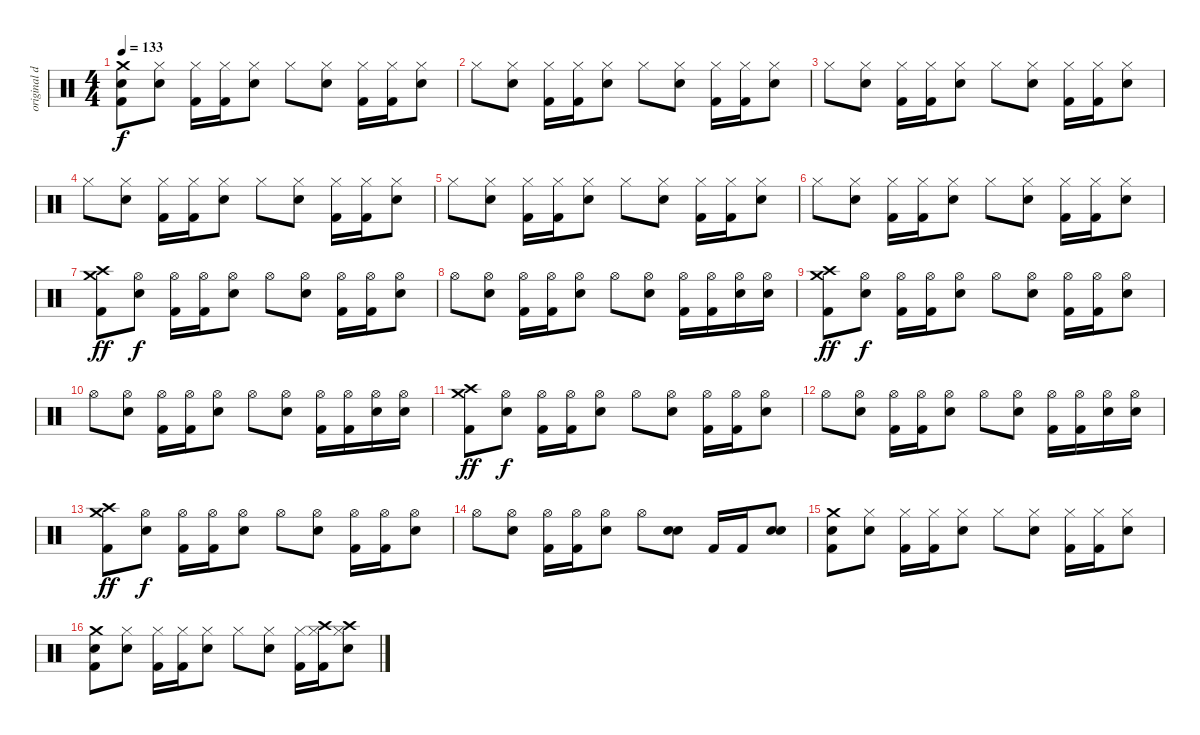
\track ("original drums" "original d") {instrument percussion}
\staff {score}
\articulation defaults
\ts (4 4)
\tempo 133
\clef neutral
\ks c
("Crash medium (hit)" "Electric Snare (hit)" "Kick (hit) 2").8{dy f} ("Hi-Hat (closed)" "Electric Snare (hit)").8 ("Hi-Hat (closed)" "Kick (hit) 2").16 ("Hi-Hat (closed)" "Kick (hit) 2").16 ("Hi-Hat (closed)" "Electric Snare (hit)").8 "Hi-Hat (closed)".8 ("Hi-Hat (closed)" "Electric Snare (hit)").8 ("Hi-Hat (closed)" "Kick (hit) 2").16 ("Hi-Hat (closed)" "Kick (hit) 2").16 ("Hi-Hat (closed)" "Electric Snare (hit)").8 |
"Hi-Hat (closed)".8 ("Hi-Hat (closed)" "Electric Snare (hit)").8 ("Hi-Hat (closed)" "Kick (hit) 2").16 ("Hi-Hat (closed)" "Kick (hit) 2").16 ("Hi-Hat (closed)" "Electric Snare (hit)").8 "Hi-Hat (closed)".8 ("Hi-Hat (closed)" "Electric Snare (hit)").8 ("Hi-Hat (closed)" "Kick (hit) 2").16 ("Hi-Hat (closed)" "Kick (hit) 2").16 ("Hi-Hat (closed)" "Electric Snare (hit)").8 |
"Hi-Hat (closed)".8 ("Hi-Hat (closed)" "Electric Snare (hit)").8 ("Hi-Hat (closed)" "Kick (hit) 2").16 ("Hi-Hat (closed)" "Kick (hit) 2").16 ("Hi-Hat (closed)" "Electric Snare (hit)").8 "Hi-Hat (closed)".8 ("Hi-Hat (closed)" "Electric Snare (hit)").8 ("Hi-Hat (closed)" "Kick (hit) 2").16 ("Hi-Hat (closed)" "Kick (hit) 2").16 ("Hi-Hat (closed)" "Electric Snare (hit)").8 |
"Hi-Hat (closed)".8 ("Hi-Hat (closed)" "Electric Snare (hit)").8 ("Hi-Hat (closed)" "Kick (hit) 2").16 ("Hi-Hat (closed)" "Kick (hit) 2").16 ("Hi-Hat (closed)" "Electric Snare (hit)").8 "Hi-Hat (closed)".8 ("Hi-Hat (closed)" "Electric Snare (hit)").8 ("Hi-Hat (closed)" "Kick (hit) 2").16 ("Hi-Hat (closed)" "Kick (hit) 2").16 ("Hi-Hat (closed)" "Electric Snare (hit)").8 |
"Hi-Hat (closed)".8 ("Hi-Hat (closed)" "Electric Snare (hit)").8 ("Hi-Hat (closed)" "Kick (hit) 2").16 ("Hi-Hat (closed)" "Kick (hit) 2").16 ("Hi-Hat (closed)" "Electric Snare (hit)").8 "Hi-Hat (closed)".8 ("Hi-Hat (closed)" "Electric Snare (hit)").8 ("Hi-Hat (closed)" "Kick (hit) 2").16 ("Hi-Hat (closed)" "Kick (hit) 2").16 ("Hi-Hat (closed)" "Electric Snare (hit)").8 |
"Hi-Hat (closed)".8 ("Hi-Hat (closed)" "Electric Snare (hit)").8 ("Hi-Hat (closed)" "Kick (hit) 2").16 ("Hi-Hat (closed)" "Kick (hit) 2").16 ("Hi-Hat (closed)" "Electric Snare (hit)").8 "Hi-Hat (closed)".8 ("Hi-Hat (closed)" "Electric Snare (hit)").8 ("Hi-Hat (closed)" "Kick (hit) 2").16 ("Hi-Hat (closed)" "Kick (hit) 2").16 ("Hi-Hat (closed)" "Electric Snare (hit)").8 |
("Crash high (hit)" "Crash medium (hit)" "Kick (hit) 2").8{dy ff} ("Hi-Hat (open)" "Electric Snare (hit)").8{dy f} ("Hi-Hat (open)" "Kick (hit) 2").16 ("Hi-Hat (open)" "Kick (hit) 2").16 ("Hi-Hat (open)" "Electric Snare (hit)").8 "Hi-Hat (open)".8 ("Hi-Hat (open)" "Electric Snare (hit)").8 ("Hi-Hat (open)" "Kick (hit) 2").16 ("Hi-Hat (open)" "Kick (hit) 2").16 ("Hi-Hat (open)" "Electric Snare (hit)").8 |
"Hi-Hat (open)".8 ("Hi-Hat (open)" "Electric Snare (hit)").8 ("Hi-Hat (open)" "Kick (hit) 2").16 ("Hi-Hat (open)" "Kick (hit) 2").16 ("Hi-Hat (open)" "Electric Snare (hit)").8 "Hi-Hat (open)".8 ("Hi-Hat (open)" "Electric Snare (hit)").8 ("Hi-Hat (open)" "Kick (hit) 2").16 ("Hi-Hat (open)" "Kick (hit) 2").16 ("Hi-Hat (open)" "Electric Snare (hit)").16 ("Hi-Hat (open)" "Electric Snare (hit)").16 |
("Crash high (hit)" "Crash medium (hit)" "Kick (hit) 2").8{dy ff} ("Hi-Hat (open)" "Electric Snare (hit)").8{dy f} ("Hi-Hat (open)" "Kick (hit) 2").16 ("Hi-Hat (open)" "Kick (hit) 2").16 ("Hi-Hat (open)" "Electric Snare (hit)").8 "Hi-Hat (open)".8 ("Hi-Hat (open)" "Electric Snare (hit)").8 ("Hi-Hat (open)" "Kick (hit) 2").16 ("Hi-Hat (open)" "Kick (hit) 2").16 ("Hi-Hat (open)" "Electric Snare (hit)").8 |
"Hi-Hat (open)".8 ("Hi-Hat (open)" "Electric Snare (hit)").8 ("Hi-Hat (open)" "Kick (hit) 2").16 ("Hi-Hat (open)" "Kick (hit) 2").16 ("Hi-Hat (open)" "Electric Snare (hit)").8 "Hi-Hat (open)".8 ("Hi-Hat (open)" "Electric Snare (hit)").8 ("Hi-Hat (open)" "Kick (hit) 2").16 ("Hi-Hat (open)" "Kick (hit) 2").16 ("Hi-Hat (open)" "Electric Snare (hit)").16 ("Hi-Hat (open)" "Electric Snare (hit)").16 |
("Crash high (hit)" "Crash medium (hit)" "Kick (hit) 2").8{dy ff} ("Hi-Hat (open)" "Electric Snare (hit)").8{dy f} ("Hi-Hat (open)" "Kick (hit) 2").16 ("Hi-Hat (open)" "Kick (hit) 2").16 ("Hi-Hat (open)" "Electric Snare (hit)").8 "Hi-Hat (open)".8 ("Hi-Hat (open)" "Electric Snare (hit)").8 ("Hi-Hat (open)" "Kick (hit) 2").16 ("Hi-Hat (open)" "Kick (hit) 2").16 ("Hi-Hat (open)" "Electric Snare (hit)").8 |
"Hi-Hat (open)".8 ("Hi-Hat (open)" "Electric Snare (hit)").8 ("Hi-Hat (open)" "Kick (hit) 2").16 ("Hi-Hat (open)" "Kick (hit) 2").16 ("Hi-Hat (open)" "Electric Snare (hit)").8 "Hi-Hat (open)".8 ("Hi-Hat (open)" "Electric Snare (hit)").8 ("Hi-Hat (open)" "Kick (hit) 2").16 ("Hi-Hat (open)" "Kick (hit) 2").16 ("Hi-Hat (open)" "Electric Snare (hit)").16 ("Hi-Hat (open)" "Electric Snare (hit)").16 |
("Crash high (hit)" "Crash medium (hit)" "Kick (hit) 2").8{dy ff} ("Hi-Hat (open)" "Electric Snare (hit)").8{dy f} ("Hi-Hat (open)" "Kick (hit) 2").16 ("Hi-Hat (open)" "Kick (hit) 2").16 ("Hi-Hat (open)" "Electric Snare (hit)").8 "Hi-Hat (open)".8 ("Hi-Hat (open)" "Electric Snare (hit)").8 ("Hi-Hat (open)" "Kick (hit) 2").16 ("Hi-Hat (open)" "Kick (hit) 2").16 ("Hi-Hat (open)" "Electric Snare (hit)").8 |
"Hi-Hat (open)".8 ("Hi-Hat (open)" "Electric Snare (hit)").8 ("Hi-Hat (open)" "Kick (hit) 2").16 ("Hi-Hat (open)" "Kick (hit) 2").16 ("Hi-Hat (open)" "Electric Snare (hit)").8 "Hi-Hat (open)".8 ("Snare (hit) 2" "Electric Snare (hit)").8 "Kick (hit) 2".16 "Kick (hit) 2".16 ("Snare (hit) 2" "Electric Snare (hit)").8 |
("Crash medium (hit)" "Electric Snare (hit)" "Kick (hit) 2").8 ("Hi-Hat (closed)" "Electric Snare (hit)").8 ("Hi-Hat (closed)" "Kick (hit) 2").16 ("Hi-Hat (closed)" "Kick (hit) 2").16 ("Hi-Hat (closed)" "Electric Snare (hit)").8 "Hi-Hat (closed)".8 ("Hi-Hat (closed)" "Electric Snare (hit)").8 ("Hi-Hat (closed)" "Kick (hit) 2").16 ("Hi-Hat (closed)" "Kick (hit) 2").16 ("Hi-Hat (closed)" "Electric Snare (hit)").8 |
("Crash medium (hit)" "Electric Snare (hit)" "Kick (hit) 2").8 ("Hi-Hat (closed)" "Electric Snare (hit)").8 ("Hi-Hat (closed)" "Kick (hit) 2").16 ("Hi-Hat (closed)" "Kick (hit) 2").16 ("Hi-Hat (closed)" "Electric Snare (hit)").8 "Hi-Hat (closed)".8 ("Hi-Hat (closed)" "Electric Snare (hit)").8 ("Hi-Hat (closed)" "Kick (hit) 2").16 ("Crash high (hit)" "Hi-Hat (closed)" "Kick (hit) 2").16 ("Crash high (hit)" "Hi-Hat (closed)" "Electric Snare (hit)").8
